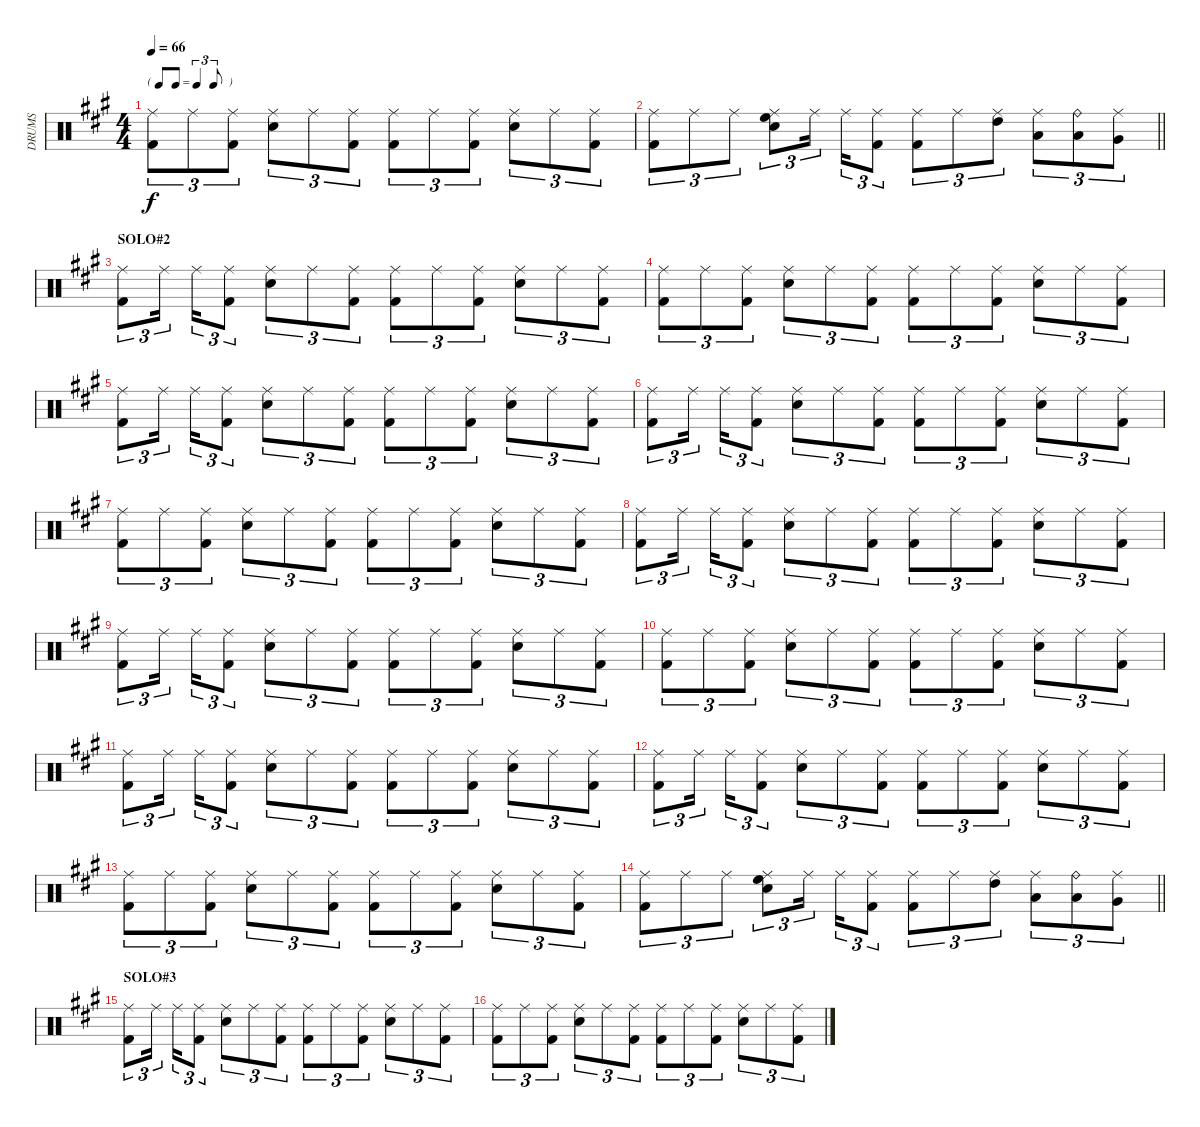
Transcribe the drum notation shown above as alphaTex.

\track ("DRUMS" "DRUMS") {instrument percussion}
\staff {score}
\articulation defaults
\ts (4 4)
\tf triplet8th
\tempo 66
\clef neutral
\ks a
("Ride (middle)" "Kick (hit) 2").8{tu (3 2) dy f} "Ride (middle)".8{tu (3 2)} ("Kick (hit) 2" "Ride (middle)").8{tu (3 2)} ("Snare (hit) 2" "Ride (middle)").8{tu (3 2)} "Ride (middle)".8{tu (3 2)} ("Ride (middle)" "Kick (hit) 2").8{tu (3 2)} ("Ride (middle)" "Kick (hit) 2").8{tu (3 2)} "Ride (middle)".8{tu (3 2)} ("Ride (middle)" "Kick (hit) 2").8{tu (3 2)} ("Snare (hit) 2" "Ride (middle)").8{tu (3 2)} "Ride (middle)".8{tu (3 2)} ("Ride (middle)" "Kick (hit) 2").8{tu (3 2)} |
\barLineRight lightlight
("Ride (middle)" "Kick (hit) 2").8{tu (3 2)} "Ride (middle)".8{tu (3 2)} "Ride (middle)".8{tu (3 2)} ("Ride (middle)" "Snare (hit) 2" "High Floor Tom (hit)").8{tu (3 2)} "Ride (middle)".16{tu (3 2) beam splitsecondary} "Ride (middle)".16{tu (3 2)} ("Kick (hit) 2" "Ride (middle)").8{tu (3 2)} ("Kick (hit) 2" "Ride (middle)").8{tu (3 2)} "Ride (middle)".8{tu (3 2)} ("High Tom (hit)" "Ride (middle)").8{tu (3 2)} ("Low Tom (hit)" "Ride (middle)").8{tu (3 2)} ("Ride (bell)" "Low Tom (hit)").8{tu (3 2)} ("Ride (middle)" "Very Low Tom (hit)").8{tu (3 2)} |
\section ("" "SOLO#2")
("Kick (hit) 2" "Ride (middle)").8{tu (3 2)} "Ride (middle)".16{tu (3 2) beam splitsecondary} "Ride (middle)".16{tu (3 2)} ("Ride (middle)" "Kick (hit) 2").8{tu (3 2)} ("Snare (hit) 2" "Ride (middle)").8{tu (3 2)} "Ride (middle)".8{tu (3 2)} ("Ride (middle)" "Kick (hit) 2").8{tu (3 2)} ("Ride (middle)" "Kick (hit) 2").8{tu (3 2)} "Ride (middle)".8{tu (3 2)} ("Ride (middle)" "Kick (hit) 2").8{tu (3 2)} ("Snare (hit) 2" "Ride (middle)").8{tu (3 2)} "Ride (middle)".8{tu (3 2)} ("Ride (middle)" "Kick (hit) 2").8{tu (3 2)} |
("Ride (middle)" "Kick (hit) 2").8{tu (3 2)} "Ride (middle)".8{tu (3 2)} ("Kick (hit) 2" "Ride (middle)").8{tu (3 2)} ("Snare (hit) 2" "Ride (middle)").8{tu (3 2)} "Ride (middle)".8{tu (3 2)} ("Ride (middle)" "Kick (hit) 2").8{tu (3 2)} ("Ride (middle)" "Kick (hit) 2").8{tu (3 2)} "Ride (middle)".8{tu (3 2)} ("Ride (middle)" "Kick (hit) 2").8{tu (3 2)} ("Snare (hit) 2" "Ride (middle)").8{tu (3 2)} "Ride (middle)".8{tu (3 2)} ("Ride (middle)" "Kick (hit) 2").8{tu (3 2)} |
("Kick (hit) 2" "Ride (middle)").8{tu (3 2)} "Ride (middle)".16{tu (3 2) beam splitsecondary} "Ride (middle)".16{tu (3 2)} ("Ride (middle)" "Kick (hit) 2").8{tu (3 2)} ("Snare (hit) 2" "Ride (middle)").8{tu (3 2)} "Ride (middle)".8{tu (3 2)} ("Ride (middle)" "Kick (hit) 2").8{tu (3 2)} ("Ride (middle)" "Kick (hit) 2").8{tu (3 2)} "Ride (middle)".8{tu (3 2)} ("Ride (middle)" "Kick (hit) 2").8{tu (3 2)} ("Snare (hit) 2" "Ride (middle)").8{tu (3 2)} "Ride (middle)".8{tu (3 2)} ("Ride (middle)" "Kick (hit) 2").8{tu (3 2)} |
("Kick (hit) 2" "Ride (middle)").8{tu (3 2)} "Ride (middle)".16{tu (3 2) beam splitsecondary} "Ride (middle)".16{tu (3 2)} ("Ride (middle)" "Kick (hit) 2").8{tu (3 2)} ("Snare (hit) 2" "Ride (middle)").8{tu (3 2)} "Ride (middle)".8{tu (3 2)} ("Ride (middle)" "Kick (hit) 2").8{tu (3 2)} ("Ride (middle)" "Kick (hit) 2").8{tu (3 2)} "Ride (middle)".8{tu (3 2)} ("Ride (middle)" "Kick (hit) 2").8{tu (3 2)} ("Snare (hit) 2" "Ride (middle)").8{tu (3 2)} "Ride (middle)".8{tu (3 2)} ("Ride (middle)" "Kick (hit) 2").8{tu (3 2)} |
("Ride (middle)" "Kick (hit) 2").8{tu (3 2)} "Ride (middle)".8{tu (3 2)} ("Kick (hit) 2" "Ride (middle)").8{tu (3 2)} ("Snare (hit) 2" "Ride (middle)").8{tu (3 2)} "Ride (middle)".8{tu (3 2)} ("Ride (middle)" "Kick (hit) 2").8{tu (3 2)} ("Ride (middle)" "Kick (hit) 2").8{tu (3 2)} "Ride (middle)".8{tu (3 2)} ("Ride (middle)" "Kick (hit) 2").8{tu (3 2)} ("Snare (hit) 2" "Ride (middle)").8{tu (3 2)} "Ride (middle)".8{tu (3 2)} ("Ride (middle)" "Kick (hit) 2").8{tu (3 2)} |
("Kick (hit) 2" "Ride (middle)").8{tu (3 2)} "Ride (middle)".16{tu (3 2) beam splitsecondary} "Ride (middle)".16{tu (3 2)} ("Ride (middle)" "Kick (hit) 2").8{tu (3 2)} ("Snare (hit) 2" "Ride (middle)").8{tu (3 2)} "Ride (middle)".8{tu (3 2)} ("Ride (middle)" "Kick (hit) 2").8{tu (3 2)} ("Ride (middle)" "Kick (hit) 2").8{tu (3 2)} "Ride (middle)".8{tu (3 2)} ("Ride (middle)" "Kick (hit) 2").8{tu (3 2)} ("Snare (hit) 2" "Ride (middle)").8{tu (3 2)} "Ride (middle)".8{tu (3 2)} ("Ride (middle)" "Kick (hit) 2").8{tu (3 2)} |
("Kick (hit) 2" "Ride (middle)").8{tu (3 2)} "Ride (middle)".16{tu (3 2) beam splitsecondary} "Ride (middle)".16{tu (3 2)} ("Ride (middle)" "Kick (hit) 2").8{tu (3 2)} ("Snare (hit) 2" "Ride (middle)").8{tu (3 2)} "Ride (middle)".8{tu (3 2)} ("Ride (middle)" "Kick (hit) 2").8{tu (3 2)} ("Ride (middle)" "Kick (hit) 2").8{tu (3 2)} "Ride (middle)".8{tu (3 2)} ("Ride (middle)" "Kick (hit) 2").8{tu (3 2)} ("Snare (hit) 2" "Ride (middle)").8{tu (3 2)} "Ride (middle)".8{tu (3 2)} ("Ride (middle)" "Kick (hit) 2").8{tu (3 2)} |
("Ride (middle)" "Kick (hit) 2").8{tu (3 2)} "Ride (middle)".8{tu (3 2)} ("Kick (hit) 2" "Ride (middle)").8{tu (3 2)} ("Snare (hit) 2" "Ride (middle)").8{tu (3 2)} "Ride (middle)".8{tu (3 2)} ("Ride (middle)" "Kick (hit) 2").8{tu (3 2)} ("Ride (middle)" "Kick (hit) 2").8{tu (3 2)} "Ride (middle)".8{tu (3 2)} ("Ride (middle)" "Kick (hit) 2").8{tu (3 2)} ("Snare (hit) 2" "Ride (middle)").8{tu (3 2)} "Ride (middle)".8{tu (3 2)} ("Ride (middle)" "Kick (hit) 2").8{tu (3 2)} |
("Kick (hit) 2" "Ride (middle)").8{tu (3 2)} "Ride (middle)".16{tu (3 2) beam splitsecondary} "Ride (middle)".16{tu (3 2)} ("Ride (middle)" "Kick (hit) 2").8{tu (3 2)} ("Snare (hit) 2" "Ride (middle)").8{tu (3 2)} "Ride (middle)".8{tu (3 2)} ("Ride (middle)" "Kick (hit) 2").8{tu (3 2)} ("Ride (middle)" "Kick (hit) 2").8{tu (3 2)} "Ride (middle)".8{tu (3 2)} ("Ride (middle)" "Kick (hit) 2").8{tu (3 2)} ("Snare (hit) 2" "Ride (middle)").8{tu (3 2)} "Ride (middle)".8{tu (3 2)} ("Ride (middle)" "Kick (hit) 2").8{tu (3 2)} |
("Kick (hit) 2" "Ride (middle)").8{tu (3 2)} "Ride (middle)".16{tu (3 2) beam splitsecondary} "Ride (middle)".16{tu (3 2)} ("Ride (middle)" "Kick (hit) 2").8{tu (3 2)} ("Snare (hit) 2" "Ride (middle)").8{tu (3 2)} "Ride (middle)".8{tu (3 2)} ("Ride (middle)" "Kick (hit) 2").8{tu (3 2)} ("Ride (middle)" "Kick (hit) 2").8{tu (3 2)} "Ride (middle)".8{tu (3 2)} ("Ride (middle)" "Kick (hit) 2").8{tu (3 2)} ("Snare (hit) 2" "Ride (middle)").8{tu (3 2)} "Ride (middle)".8{tu (3 2)} ("Ride (middle)" "Kick (hit) 2").8{tu (3 2)} |
("Ride (middle)" "Kick (hit) 2").8{tu (3 2)} "Ride (middle)".8{tu (3 2)} ("Kick (hit) 2" "Ride (middle)").8{tu (3 2)} ("Snare (hit) 2" "Ride (middle)").8{tu (3 2)} "Ride (middle)".8{tu (3 2)} ("Ride (middle)" "Kick (hit) 2").8{tu (3 2)} ("Ride (middle)" "Kick (hit) 2").8{tu (3 2)} "Ride (middle)".8{tu (3 2)} ("Ride (middle)" "Kick (hit) 2").8{tu (3 2)} ("Snare (hit) 2" "Ride (middle)").8{tu (3 2)} "Ride (middle)".8{tu (3 2)} ("Ride (middle)" "Kick (hit) 2").8{tu (3 2)} |
\barLineRight lightlight
("Ride (middle)" "Kick (hit) 2").8{tu (3 2)} "Ride (middle)".8{tu (3 2)} "Ride (middle)".8{tu (3 2)} ("Ride (middle)" "Snare (hit) 2" "High Floor Tom (hit)").8{tu (3 2)} "Ride (middle)".16{tu (3 2) beam splitsecondary} "Ride (middle)".16{tu (3 2)} ("Kick (hit) 2" "Ride (middle)").8{tu (3 2)} ("Kick (hit) 2" "Ride (middle)").8{tu (3 2)} "Ride (middle)".8{tu (3 2)} ("High Tom (hit)" "Ride (middle)").8{tu (3 2)} ("Low Tom (hit)" "Ride (middle)").8{tu (3 2)} ("Ride (bell)" "Low Tom (hit)").8{tu (3 2)} ("Ride (middle)" "Very Low Tom (hit)").8{tu (3 2)} |
\section ("" "SOLO#3")
("Kick (hit) 2" "Ride (middle)").8{tu (3 2)} "Ride (middle)".16{tu (3 2) beam splitsecondary} "Ride (middle)".16{tu (3 2)} ("Ride (middle)" "Kick (hit) 2").8{tu (3 2)} ("Snare (hit) 2" "Ride (middle)").8{tu (3 2)} "Ride (middle)".8{tu (3 2)} ("Ride (middle)" "Kick (hit) 2").8{tu (3 2)} ("Ride (middle)" "Kick (hit) 2").8{tu (3 2)} "Ride (middle)".8{tu (3 2)} ("Ride (middle)" "Kick (hit) 2").8{tu (3 2)} ("Snare (hit) 2" "Ride (middle)").8{tu (3 2)} "Ride (middle)".8{tu (3 2)} ("Ride (middle)" "Kick (hit) 2").8{tu (3 2)} |
("Ride (middle)" "Kick (hit) 2").8{tu (3 2)} "Ride (middle)".8{tu (3 2)} ("Kick (hit) 2" "Ride (middle)").8{tu (3 2)} ("Snare (hit) 2" "Ride (middle)").8{tu (3 2)} "Ride (middle)".8{tu (3 2)} ("Ride (middle)" "Kick (hit) 2").8{tu (3 2)} ("Ride (middle)" "Kick (hit) 2").8{tu (3 2)} "Ride (middle)".8{tu (3 2)} ("Ride (middle)" "Kick (hit) 2").8{tu (3 2)} ("Snare (hit) 2" "Ride (middle)").8{tu (3 2)} "Ride (middle)".8{tu (3 2)} ("Ride (middle)" "Kick (hit) 2").8{tu (3 2)}
